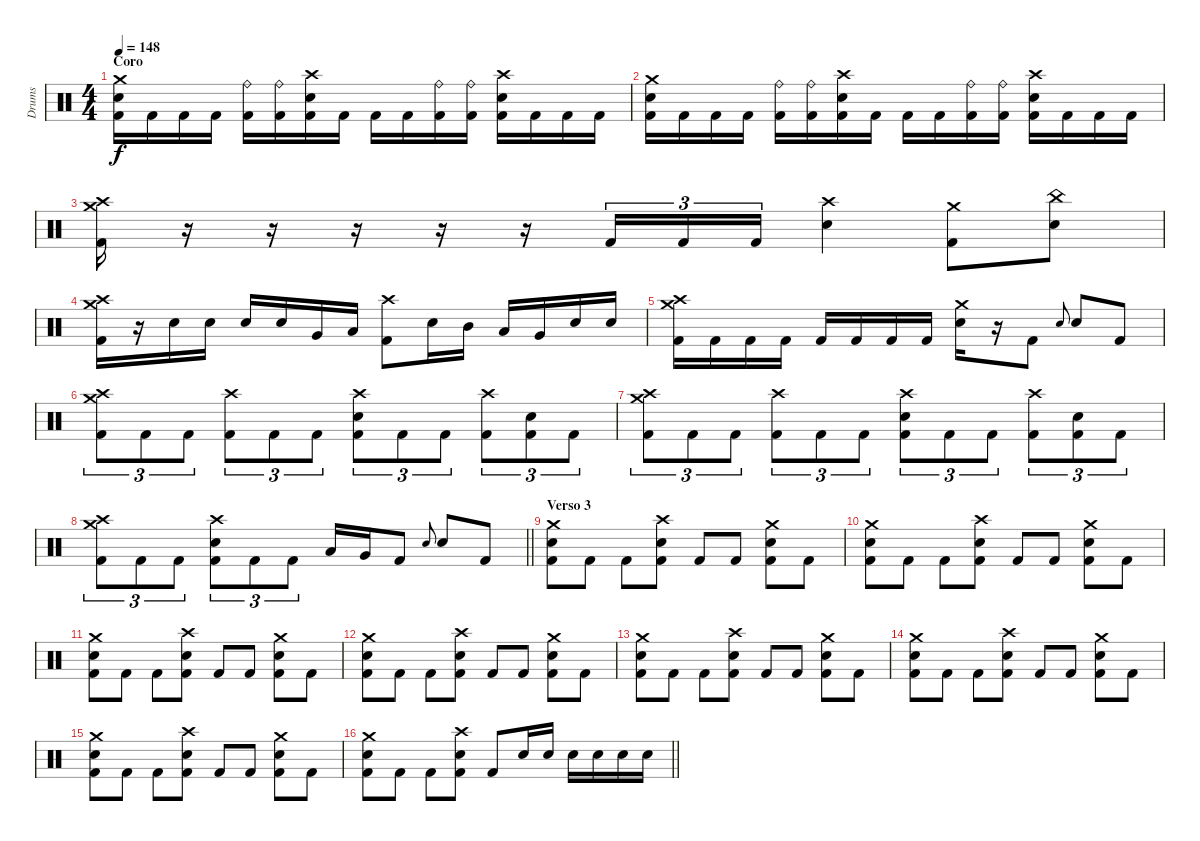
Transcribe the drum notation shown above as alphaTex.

\track ("Drums" "Drums") {instrument percussion}
\staff {score}
\articulation defaults
\ts (4 4)
\section ("" "Coro")
\tempo 148
\clef neutral
\ks c
("Crash medium (hit)" "Electric Snare (hit)" "Kick (hit) 2").16{dy f} "Kick (hit) 2".16 "Kick (hit) 2".16 "Kick (hit) 2".16 ("Ride (bell)" "Kick (hit) 2").16 ("Ride (bell)" "Kick (hit) 2").16 ("Crash high (hit)" "Electric Snare (hit)" "Kick (hit) 2").16 "Kick (hit) 2".16 "Kick (hit) 2".16 "Kick (hit) 2".16 ("Ride (bell)" "Kick (hit) 2").16 ("Ride (bell)" "Kick (hit) 2").16 ("Crash high (hit)" "Electric Snare (hit)" "Kick (hit) 2").16 "Kick (hit) 2".16 "Kick (hit) 2".16 "Kick (hit) 2".16 |
("Crash medium (hit)" "Electric Snare (hit)" "Kick (hit) 2").16 "Kick (hit) 2".16 "Kick (hit) 2".16 "Kick (hit) 2".16 ("Ride (bell)" "Kick (hit) 2").16 ("Ride (bell)" "Kick (hit) 2").16 ("Crash high (hit)" "Electric Snare (hit)" "Kick (hit) 2").16 "Kick (hit) 2".16 "Kick (hit) 2".16 "Kick (hit) 2".16 ("Ride (bell)" "Kick (hit) 2").16 ("Ride (bell)" "Kick (hit) 2").16 ("Crash high (hit)" "Electric Snare (hit)" "Kick (hit) 2").16 "Kick (hit) 2".16 "Kick (hit) 2".16 "Kick (hit) 2".16 |
("Crash high (hit)" "Crash medium (hit)" "Kick (hit) 2").16 r.16 r.16 r.16 r.16 r.16 "Kick (hit) 2".16{tu (3 2)} "Kick (hit) 2".16{tu (3 2)} "Kick (hit) 2".16{tu (3 2)} ("Crash high (hit)" "Electric Snare (hit)").4 ("Crash medium (hit)" "Kick (hit) 2").8 ("China (hit)" "Electric Snare (hit)").8 |
("Crash medium (hit)" "Crash high (hit)" "Kick (hit) 2").16 r.16 "Electric Snare (hit)".16 "Electric Snare (hit)".16 "Electric Snare (hit)".16 "Electric Snare (hit)".16 "Very Low Tom (hit)".16 "Low Floor Tom (hit)".16 ("Crash high (hit)" "Kick (hit) 2").8 "Electric Snare (hit)".16 "Mid Tom (hit)".16 "Low Tom (hit)".16 "Very Low Tom (hit)".16 "Electric Snare (hit)".16 "Electric Snare (hit)".16 |
("Crash medium (hit)" "Crash high (hit)" "Kick (hit) 2").16 "Kick (hit) 2".16 "Kick (hit) 2".16 "Kick (hit) 2".16 "Kick (hit) 2".16 "Kick (hit) 2".16 "Kick (hit) 2".16 "Kick (hit) 2".16 ("Crash medium (hit)" "Electric Snare (hit)").16 r.16 "Kick (hit) 2".8 "Electric Snare (hit)".8{gr onbeat} "Electric Snare (hit)".8 "Kick (hit) 2".8 |
("Crash high (hit)" "Crash medium (hit)" "Kick (hit) 2").8{tu (3 2)} "Kick (hit) 2".8{tu (3 2)} "Kick (hit) 2".8{tu (3 2)} ("Crash high (hit)" "Kick (hit) 2").8{tu (3 2)} "Kick (hit) 2".8{tu (3 2)} "Kick (hit) 2".8{tu (3 2)} ("Crash high (hit)" "Electric Snare (hit)" "Kick (hit) 2").8{tu (3 2)} "Kick (hit) 2".8{tu (3 2)} "Kick (hit) 2".8{tu (3 2)} ("Crash high (hit)" "Kick (hit) 2").8{tu (3 2)} ("Electric Snare (hit)" "Kick (hit) 2").8{tu (3 2)} "Kick (hit) 2".8{tu (3 2)} |
("Crash high (hit)" "Crash medium (hit)" "Kick (hit) 2").8{tu (3 2)} "Kick (hit) 2".8{tu (3 2)} "Kick (hit) 2".8{tu (3 2)} ("Crash high (hit)" "Kick (hit) 2").8{tu (3 2)} "Kick (hit) 2".8{tu (3 2)} "Kick (hit) 2".8{tu (3 2)} ("Crash high (hit)" "Electric Snare (hit)" "Kick (hit) 2").8{tu (3 2)} "Kick (hit) 2".8{tu (3 2)} "Kick (hit) 2".8{tu (3 2)} ("Crash high (hit)" "Kick (hit) 2").8{tu (3 2)} ("Electric Snare (hit)" "Kick (hit) 2").8{tu (3 2)} "Kick (hit) 2".8{tu (3 2)} |
\barLineRight lightlight
("Crash high (hit)" "Crash medium (hit)" "Kick (hit) 2").8{tu (3 2)} "Kick (hit) 2".8{tu (3 2)} "Kick (hit) 2".8{tu (3 2)} ("Crash high (hit)" "Electric Snare (hit)" "Kick (hit) 2").8{tu (3 2)} "Kick (hit) 2".8{tu (3 2)} "Kick (hit) 2".8{tu (3 2)} "Low Tom (hit)".16 "Very Low Tom (hit)".16 "Kick (hit) 2".8 "Electric Snare (hit)".8{gr onbeat} "Electric Snare (hit)".8 "Kick (hit) 2".8 |
\section ("" "Verso 3")
("Crash medium (hit)" "Electric Snare (hit)" "Kick (hit) 2").8 "Kick (hit) 2".8 "Kick (hit) 2".8 ("Crash high (hit)" "Electric Snare (hit)" "Kick (hit) 2").8 "Kick (hit) 2".8 "Kick (hit) 2".8 ("Crash medium (hit)" "Electric Snare (hit)" "Kick (hit) 2").8 "Kick (hit) 2".8 |
("Crash medium (hit)" "Electric Snare (hit)" "Kick (hit) 2").8 "Kick (hit) 2".8 "Kick (hit) 2".8 ("Crash high (hit)" "Electric Snare (hit)" "Kick (hit) 2").8 "Kick (hit) 2".8 "Kick (hit) 2".8 ("Crash medium (hit)" "Electric Snare (hit)" "Kick (hit) 2").8 "Kick (hit) 2".8 |
("Crash medium (hit)" "Electric Snare (hit)" "Kick (hit) 2").8 "Kick (hit) 2".8 "Kick (hit) 2".8 ("Crash high (hit)" "Electric Snare (hit)" "Kick (hit) 2").8 "Kick (hit) 2".8 "Kick (hit) 2".8 ("Crash medium (hit)" "Electric Snare (hit)" "Kick (hit) 2").8 "Kick (hit) 2".8 |
("Crash medium (hit)" "Electric Snare (hit)" "Kick (hit) 2").8 "Kick (hit) 2".8 "Kick (hit) 2".8 ("Crash high (hit)" "Electric Snare (hit)" "Kick (hit) 2").8 "Kick (hit) 2".8 "Kick (hit) 2".8 ("Crash medium (hit)" "Electric Snare (hit)" "Kick (hit) 2").8 "Kick (hit) 2".8 |
("Crash medium (hit)" "Electric Snare (hit)" "Kick (hit) 2").8 "Kick (hit) 2".8 "Kick (hit) 2".8 ("Crash high (hit)" "Electric Snare (hit)" "Kick (hit) 2").8 "Kick (hit) 2".8 "Kick (hit) 2".8 ("Crash medium (hit)" "Electric Snare (hit)" "Kick (hit) 2").8 "Kick (hit) 2".8 |
("Crash medium (hit)" "Electric Snare (hit)" "Kick (hit) 2").8 "Kick (hit) 2".8 "Kick (hit) 2".8 ("Crash high (hit)" "Electric Snare (hit)" "Kick (hit) 2").8 "Kick (hit) 2".8 "Kick (hit) 2".8 ("Crash medium (hit)" "Electric Snare (hit)" "Kick (hit) 2").8 "Kick (hit) 2".8 |
("Crash medium (hit)" "Electric Snare (hit)" "Kick (hit) 2").8 "Kick (hit) 2".8 "Kick (hit) 2".8 ("Crash high (hit)" "Electric Snare (hit)" "Kick (hit) 2").8 "Kick (hit) 2".8 "Kick (hit) 2".8 ("Crash medium (hit)" "Electric Snare (hit)" "Kick (hit) 2").8 "Kick (hit) 2".8 |
\barLineRight lightlight
("Crash medium (hit)" "Electric Snare (hit)" "Kick (hit) 2").8 "Kick (hit) 2".8 "Kick (hit) 2".8 ("Crash high (hit)" "Electric Snare (hit)" "Kick (hit) 2").8 "Kick (hit) 2".8 "Electric Snare (hit)".16 "Electric Snare (hit)".16 "Electric Snare (hit)".16 "Electric Snare (hit)".16 "Electric Snare (hit)".16 "Electric Snare (hit)".16
